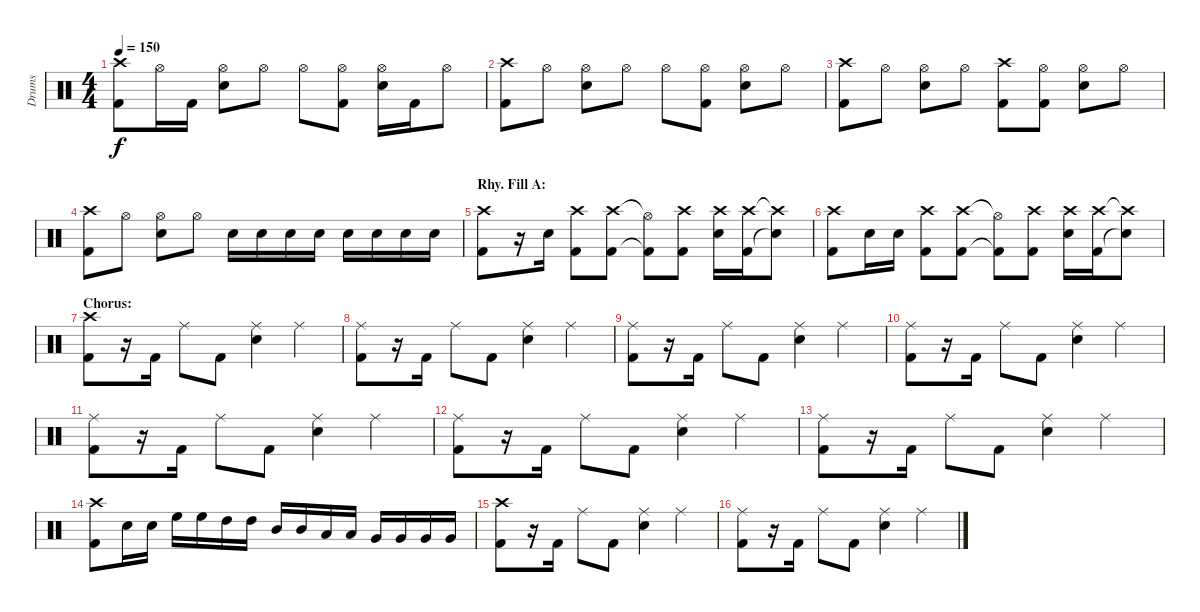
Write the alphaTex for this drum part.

\track ("Drums" "Drums") {instrument percussion}
\staff {score}
\articulation defaults
\ts (4 4)
\tempo 150
\clef neutral
\ks c
("Crash high (hit)" "Kick (hit) 2").8{dy f} "Hi-Hat (open)".16 "Kick (hit) 2".16 ("Hi-Hat (open)" "Electric Snare (hit)").8 "Hi-Hat (open)".8 "Hi-Hat (open)".8 ("Hi-Hat (open)" "Kick (hit) 2").8 ("Hi-Hat (open)" "Electric Snare (hit)").16 "Kick (hit) 2".16 "Hi-Hat (open)".8 |
("Crash high (hit)" "Kick (hit) 2").8 "Hi-Hat (open)".8 ("Hi-Hat (open)" "Electric Snare (hit)").8 "Hi-Hat (open)".8 "Hi-Hat (open)".8 ("Hi-Hat (open)" "Kick (hit) 2").8 ("Hi-Hat (open)" "Electric Snare (hit)").8 "Hi-Hat (open)".8 |
("Crash high (hit)" "Kick (hit) 2").8 "Hi-Hat (open)".8 ("Hi-Hat (open)" "Electric Snare (hit)").8 "Hi-Hat (open)".8 ("Crash high (hit)" "Kick (hit) 2").8 ("Hi-Hat (open)" "Kick (hit) 2").8 ("Hi-Hat (open)" "Electric Snare (hit)").8 "Hi-Hat (open)".8 |
("Crash high (hit)" "Kick (hit) 2").8 "Hi-Hat (open)".8 ("Hi-Hat (open)" "Electric Snare (hit)").8 "Hi-Hat (open)".8 "Electric Snare (hit)".16 "Electric Snare (hit)".16 "Electric Snare (hit)".16 "Electric Snare (hit)".16 "Electric Snare (hit)".16 "Electric Snare (hit)".16 "Electric Snare (hit)".16 "Electric Snare (hit)".16 |
\section ("" "Rhy. Fill A:")
("Crash high (hit)" "Kick (hit) 2").8 r.16 "Electric Snare (hit)".16 ("Crash high (hit)" "Kick (hit) 2").8 ("Crash high (hit)" "Kick (hit) 2").8 ("Hi-Hat (open)"{t} "Kick (hit) 2"{t}).8 ("Crash high (hit)" "Kick (hit) 2").8 ("Crash high (hit)" "Electric Snare (hit)").16 ("Crash high (hit)" "Kick (hit) 2").16 ("Crash high (hit)"{t} "Snare (hit)"{t}).8 |
("Crash high (hit)" "Kick (hit) 2").8 "Electric Snare (hit)".16 "Electric Snare (hit)".16 ("Crash high (hit)" "Kick (hit) 2").8 ("Crash high (hit)" "Kick (hit) 2").8 ("Hi-Hat (open)"{t} "Kick (hit) 2"{t}).8 ("Crash high (hit)" "Kick (hit) 2").8 ("Crash high (hit)" "Electric Snare (hit)").16 ("Crash high (hit)" "Kick (hit) 2").16 ("Crash high (hit)"{t} "Snare (hit)"{t}).8 |
\section ("" "Chorus:")
("Crash high (hit)" "Kick (hit) 2").8 r.16 "Kick (hit) 2".16 "Ride (middle)".8 "Kick (hit) 2".8 ("Ride (middle)" "Electric Snare (hit)").4 "Ride (middle)".4 |
("Ride (middle)" "Kick (hit) 2").8 r.16 "Kick (hit) 2".16 "Ride (middle)".8 "Kick (hit) 2".8 ("Ride (middle)" "Electric Snare (hit)").4 "Ride (middle)".4 |
("Ride (middle)" "Kick (hit) 2").8 r.16 "Kick (hit) 2".16 "Ride (middle)".8 "Kick (hit) 2".8 ("Ride (middle)" "Electric Snare (hit)").4 "Ride (middle)".4 |
("Ride (middle)" "Kick (hit) 2").8 r.16 "Kick (hit) 2".16 "Ride (middle)".8 "Kick (hit) 2".8 ("Ride (middle)" "Electric Snare (hit)").4 "Ride (middle)".4 |
("Ride (middle)" "Kick (hit) 2").8 r.16 "Kick (hit) 2".16 "Ride (middle)".8 "Kick (hit) 2".8 ("Ride (middle)" "Electric Snare (hit)").4 "Ride (middle)".4 |
("Ride (middle)" "Kick (hit) 2").8 r.16 "Kick (hit) 2".16 "Ride (middle)".8 "Kick (hit) 2".8 ("Ride (middle)" "Electric Snare (hit)").4 "Ride (middle)".4 |
("Ride (middle)" "Kick (hit) 2").8 r.16 "Kick (hit) 2".16 "Ride (middle)".8 "Kick (hit) 2".8 ("Ride (middle)" "Electric Snare (hit)").4 "Ride (middle)".4 |
("Crash high (hit)" "Kick (hit) 2").8 "Electric Snare (hit)".16 "Electric Snare (hit)".16 "High Floor Tom (hit)".16 "High Floor Tom (hit)".16 "High Tom (hit)".16 "High Tom (hit)".16 "Mid Tom (hit)".16 "Mid Tom (hit)".16 "Low Tom (hit)".16 "Low Tom (hit)".16 "Very Low Tom (hit)".16 "Very Low Tom (hit)".16 "Very Low Tom (hit)".16 "Very Low Tom (hit)".16 |
("Crash high (hit)" "Kick (hit) 2").8 r.16 "Kick (hit) 2".16 "Ride (middle)".8 "Kick (hit) 2".8 ("Ride (middle)" "Electric Snare (hit)").4 "Ride (middle)".4 |
("Ride (middle)" "Kick (hit) 2").8 r.16 "Kick (hit) 2".16 "Ride (middle)".8 "Kick (hit) 2".8 ("Ride (middle)" "Electric Snare (hit)").4 "Ride (middle)".4
